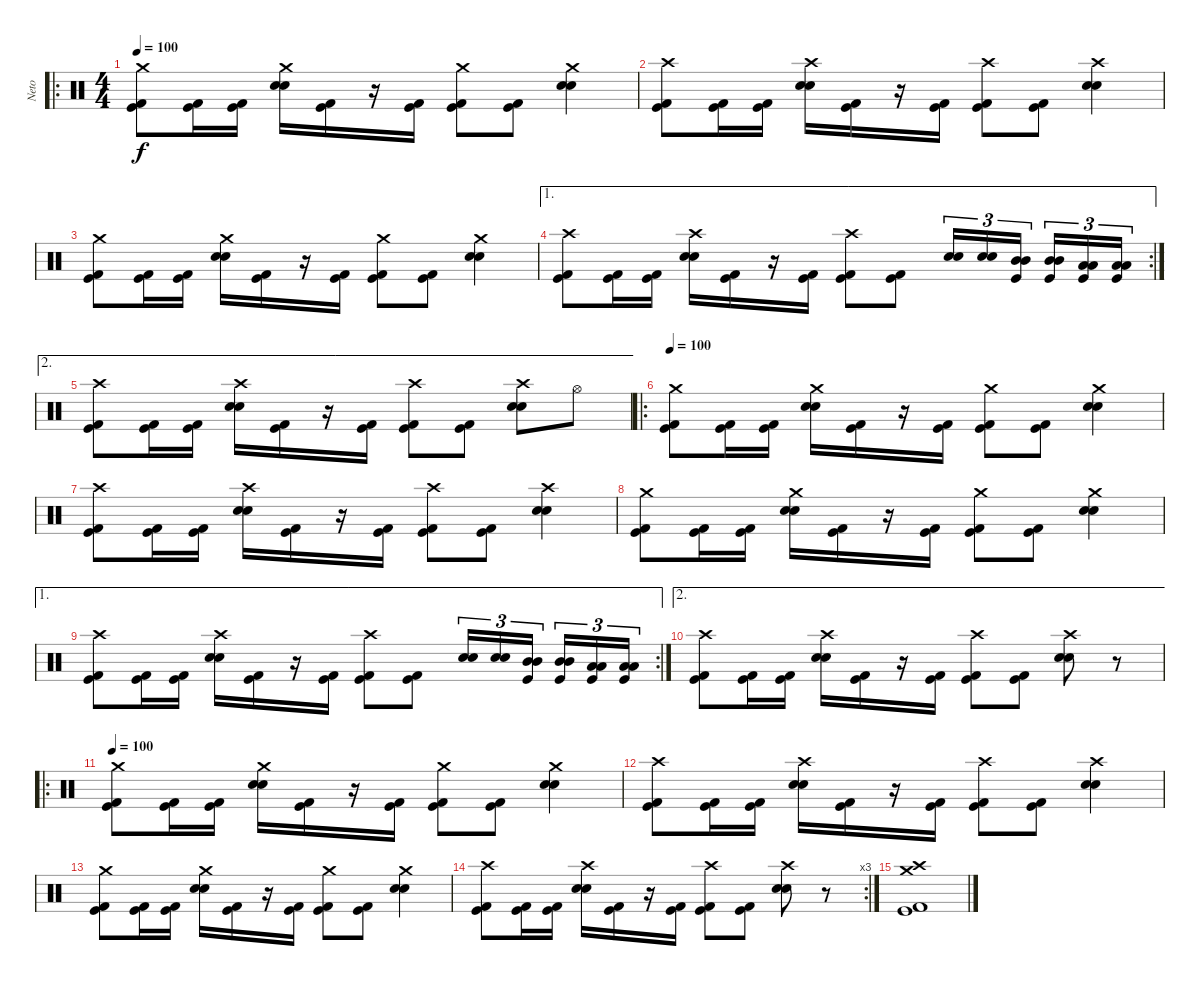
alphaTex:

\track ("Neto" "Neto") {instrument percussion}
\staff {score}
\articulation defaults
\ro
\ts (4 4)
\tempo 100
\clef neutral
\ks c
("Crash medium (hit)" "Kick (hit)" "Kick (hit) 2").8{dy f} ("Kick (hit)" "Kick (hit) 2").16 ("Kick (hit)" "Kick (hit) 2").16 ("Crash medium (hit)" "Snare (hit) 2" "Snare (hit) 2").16 ("Kick (hit)" "Kick (hit) 2").16 r.16 ("Kick (hit)" "Kick (hit) 2").16 ("Crash medium (hit)" "Kick (hit)" "Kick (hit) 2").8 ("Kick (hit)" "Kick (hit) 2").8 ("Crash medium (hit)" "Snare (hit) 2" "Snare (hit) 2").4 |
("Crash high (hit)" "Kick (hit)" "Kick (hit) 2").8 ("Kick (hit)" "Kick (hit) 2").16 ("Kick (hit)" "Kick (hit) 2").16 ("Crash high (hit)" "Snare (hit) 2" "Snare (hit) 2").16 ("Kick (hit)" "Kick (hit) 2").16 r.16 ("Kick (hit)" "Kick (hit) 2").16 ("Crash high (hit)" "Kick (hit)" "Kick (hit) 2").8 ("Kick (hit)" "Kick (hit) 2").8 ("Crash high (hit)" "Snare (hit) 2" "Snare (hit) 2").4 |
("Crash medium (hit)" "Kick (hit)" "Kick (hit) 2").8 ("Kick (hit)" "Kick (hit) 2").16 ("Kick (hit)" "Kick (hit) 2").16 ("Crash medium (hit)" "Snare (hit) 2" "Snare (hit) 2").16 ("Kick (hit)" "Kick (hit) 2").16 r.16 ("Kick (hit)" "Kick (hit) 2").16 ("Crash medium (hit)" "Kick (hit)" "Kick (hit) 2").8 ("Kick (hit)" "Kick (hit) 2").8 ("Crash medium (hit)" "Snare (hit) 2" "Snare (hit) 2").4 |
\ae 1
\rc 2
("Crash high (hit)" "Kick (hit)" "Kick (hit) 2").8 ("Kick (hit)" "Kick (hit) 2").16 ("Kick (hit)" "Kick (hit) 2").16 ("Crash high (hit)" "Snare (hit) 2" "Snare (hit) 2").16 ("Kick (hit)" "Kick (hit) 2").16 r.16 ("Kick (hit)" "Kick (hit) 2").16 ("Crash high (hit)" "Kick (hit)" "Kick (hit) 2").8 ("Kick (hit)" "Kick (hit) 2").8 ("Snare (hit) 2" "Snare (hit) 2").16{tu (3 2)} ("Snare (hit) 2" "Snare (hit) 2").16{tu (3 2)} ("Mid Tom (hit)" "Mid Tom (hit)" "Kick (hit)").16{tu (3 2)} ("Mid Tom (hit)" "Mid Tom (hit)" "Kick (hit)").16{tu (3 2)} ("Low Tom (hit)" "Low Tom (hit)" "Kick (hit)").16{tu (3 2)} ("Low Tom (hit)" "Low Tom (hit)" "Kick (hit)").16{tu (3 2)} |
\ae 2
("Crash high (hit)" "Kick (hit)" "Kick (hit) 2").8 ("Kick (hit)" "Kick (hit) 2").16 ("Kick (hit)" "Kick (hit) 2").16 ("Crash high (hit)" "Snare (hit) 2" "Snare (hit) 2").16 ("Kick (hit)" "Kick (hit) 2").16 r.16 ("Kick (hit)" "Kick (hit) 2").16 ("Crash high (hit)" "Kick (hit)" "Kick (hit) 2").8 ("Kick (hit)" "Kick (hit) 2").8 ("Crash high (hit)" "Snare (hit) 2" "Snare (hit) 2").8 "Hi-Hat (open)".8 |
\ro
\tempo 100
("Crash medium (hit)" "Kick (hit)" "Kick (hit) 2").8 ("Kick (hit)" "Kick (hit) 2").16 ("Kick (hit)" "Kick (hit) 2").16 ("Crash medium (hit)" "Snare (hit) 2" "Snare (hit) 2").16 ("Kick (hit)" "Kick (hit) 2").16 r.16 ("Kick (hit)" "Kick (hit) 2").16 ("Crash medium (hit)" "Kick (hit)" "Kick (hit) 2").8 ("Kick (hit)" "Kick (hit) 2").8 ("Crash medium (hit)" "Snare (hit) 2" "Snare (hit) 2").4 |
("Crash high (hit)" "Kick (hit)" "Kick (hit) 2").8 ("Kick (hit)" "Kick (hit) 2").16 ("Kick (hit)" "Kick (hit) 2").16 ("Crash high (hit)" "Snare (hit) 2" "Snare (hit) 2").16 ("Kick (hit)" "Kick (hit) 2").16 r.16 ("Kick (hit)" "Kick (hit) 2").16 ("Crash high (hit)" "Kick (hit)" "Kick (hit) 2").8 ("Kick (hit)" "Kick (hit) 2").8 ("Crash high (hit)" "Snare (hit) 2" "Snare (hit) 2").4 |
("Crash medium (hit)" "Kick (hit)" "Kick (hit) 2").8 ("Kick (hit)" "Kick (hit) 2").16 ("Kick (hit)" "Kick (hit) 2").16 ("Crash medium (hit)" "Snare (hit) 2" "Snare (hit) 2").16 ("Kick (hit)" "Kick (hit) 2").16 r.16 ("Kick (hit)" "Kick (hit) 2").16 ("Crash medium (hit)" "Kick (hit)" "Kick (hit) 2").8 ("Kick (hit)" "Kick (hit) 2").8 ("Crash medium (hit)" "Snare (hit) 2" "Snare (hit) 2").4 |
\ae 1
\rc 2
("Crash high (hit)" "Kick (hit)" "Kick (hit) 2").8 ("Kick (hit)" "Kick (hit) 2").16 ("Kick (hit)" "Kick (hit) 2").16 ("Crash high (hit)" "Snare (hit) 2" "Snare (hit) 2").16 ("Kick (hit)" "Kick (hit) 2").16 r.16 ("Kick (hit)" "Kick (hit) 2").16 ("Crash high (hit)" "Kick (hit)" "Kick (hit) 2").8 ("Kick (hit)" "Kick (hit) 2").8 ("Snare (hit) 2" "Snare (hit) 2").16{tu (3 2)} ("Snare (hit) 2" "Snare (hit) 2").16{tu (3 2)} ("Mid Tom (hit)" "Mid Tom (hit)" "Kick (hit)").16{tu (3 2)} ("Mid Tom (hit)" "Mid Tom (hit)" "Kick (hit)").16{tu (3 2)} ("Low Tom (hit)" "Low Tom (hit)" "Kick (hit)").16{tu (3 2)} ("Low Tom (hit)" "Low Tom (hit)" "Kick (hit)").16{tu (3 2)} |
\ae 2
("Crash high (hit)" "Kick (hit)" "Kick (hit) 2").8 ("Kick (hit)" "Kick (hit) 2").16 ("Kick (hit)" "Kick (hit) 2").16 ("Crash high (hit)" "Snare (hit) 2" "Snare (hit) 2").16 ("Kick (hit)" "Kick (hit) 2").16 r.16 ("Kick (hit)" "Kick (hit) 2").16 ("Crash high (hit)" "Kick (hit)" "Kick (hit) 2").8 ("Kick (hit)" "Kick (hit) 2").8 ("Crash high (hit)" "Snare (hit) 2" "Snare (hit) 2").8 r.8 |
\ro
\tempo 100
("Crash medium (hit)" "Kick (hit)" "Kick (hit) 2").8 ("Kick (hit)" "Kick (hit) 2").16 ("Kick (hit)" "Kick (hit) 2").16 ("Crash medium (hit)" "Snare (hit) 2" "Snare (hit) 2").16 ("Kick (hit)" "Kick (hit) 2").16 r.16 ("Kick (hit)" "Kick (hit) 2").16 ("Crash medium (hit)" "Kick (hit)" "Kick (hit) 2").8 ("Kick (hit)" "Kick (hit) 2").8 ("Crash medium (hit)" "Snare (hit) 2" "Snare (hit) 2").4 |
("Crash high (hit)" "Kick (hit)" "Kick (hit) 2").8 ("Kick (hit)" "Kick (hit) 2").16 ("Kick (hit)" "Kick (hit) 2").16 ("Crash high (hit)" "Snare (hit) 2" "Snare (hit) 2").16 ("Kick (hit)" "Kick (hit) 2").16 r.16 ("Kick (hit)" "Kick (hit) 2").16 ("Crash high (hit)" "Kick (hit)" "Kick (hit) 2").8 ("Kick (hit)" "Kick (hit) 2").8 ("Crash high (hit)" "Snare (hit) 2" "Snare (hit) 2").4 |
("Crash medium (hit)" "Kick (hit)" "Kick (hit) 2").8 ("Kick (hit)" "Kick (hit) 2").16 ("Kick (hit)" "Kick (hit) 2").16 ("Crash medium (hit)" "Snare (hit) 2" "Snare (hit) 2").16 ("Kick (hit)" "Kick (hit) 2").16 r.16 ("Kick (hit)" "Kick (hit) 2").16 ("Crash medium (hit)" "Kick (hit)" "Kick (hit) 2").8 ("Kick (hit)" "Kick (hit) 2").8 ("Crash medium (hit)" "Snare (hit) 2" "Snare (hit) 2").4 |
\rc 3
("Crash high (hit)" "Kick (hit)" "Kick (hit) 2").8 ("Kick (hit)" "Kick (hit) 2").16 ("Kick (hit)" "Kick (hit) 2").16 ("Crash high (hit)" "Snare (hit) 2" "Snare (hit) 2").16 ("Kick (hit)" "Kick (hit) 2").16 r.16 ("Kick (hit)" "Kick (hit) 2").16 ("Crash high (hit)" "Kick (hit)" "Kick (hit) 2").8 ("Kick (hit)" "Kick (hit) 2").8 ("Crash high (hit)" "Snare (hit) 2" "Snare (hit) 2").8 r.8 |
("Crash high (hit)" "Crash medium (hit)" "Kick (hit)" "Kick (hit) 2").1
